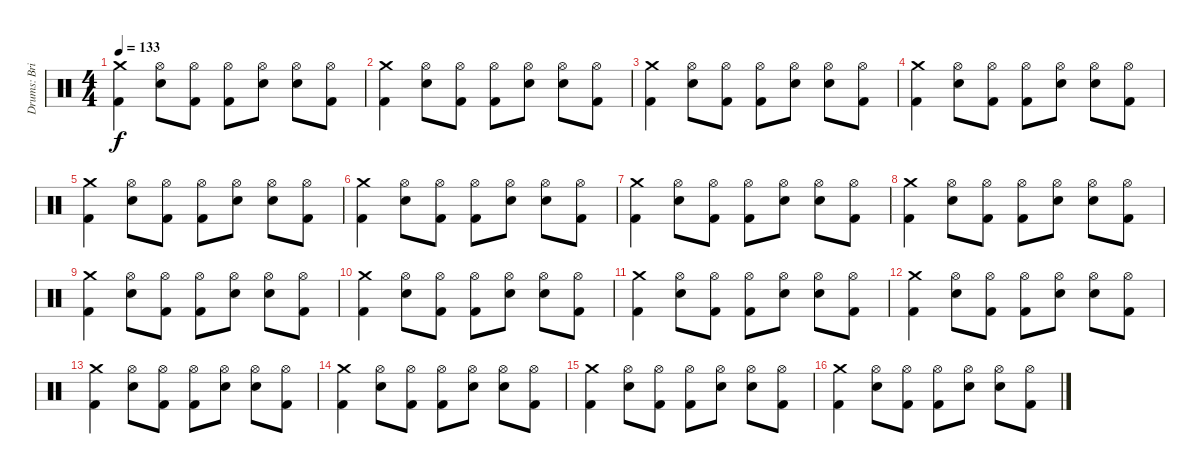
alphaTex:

\track ("Drums: Brian Mantila" "Drums: Bri") {instrument percussion}
\staff {score}
\articulation defaults
\ts (4 4)
\tempo 133
\clef neutral
\ks c
("Crash medium (hit)" "Kick (hit) 2").4{dy f} ("Electric Snare (hit)" "Hi-Hat (open)").8 ("Kick (hit) 2" "Hi-Hat (open)").8 ("Kick (hit) 2" "Hi-Hat (open)").8 ("Electric Snare (hit)" "Hi-Hat (open)").8 ("Electric Snare (hit)" "Hi-Hat (open)").8 ("Kick (hit) 2" "Hi-Hat (open)").8 |
("Crash medium (hit)" "Kick (hit) 2").4 ("Electric Snare (hit)" "Hi-Hat (open)").8 ("Kick (hit) 2" "Hi-Hat (open)").8 ("Kick (hit) 2" "Hi-Hat (open)").8 ("Electric Snare (hit)" "Hi-Hat (open)").8 ("Electric Snare (hit)" "Hi-Hat (open)").8 ("Kick (hit) 2" "Hi-Hat (open)").8 |
("Crash medium (hit)" "Kick (hit) 2").4 ("Electric Snare (hit)" "Hi-Hat (open)").8 ("Kick (hit) 2" "Hi-Hat (open)").8 ("Kick (hit) 2" "Hi-Hat (open)").8 ("Electric Snare (hit)" "Hi-Hat (open)").8 ("Electric Snare (hit)" "Hi-Hat (open)").8 ("Kick (hit) 2" "Hi-Hat (open)").8 |
("Crash medium (hit)" "Kick (hit) 2").4 ("Electric Snare (hit)" "Hi-Hat (open)").8 ("Kick (hit) 2" "Hi-Hat (open)").8 ("Kick (hit) 2" "Hi-Hat (open)").8 ("Electric Snare (hit)" "Hi-Hat (open)").8 ("Electric Snare (hit)" "Hi-Hat (open)").8 ("Kick (hit) 2" "Hi-Hat (open)").8 |
("Crash medium (hit)" "Kick (hit) 2").4 ("Electric Snare (hit)" "Hi-Hat (open)").8 ("Kick (hit) 2" "Hi-Hat (open)").8 ("Kick (hit) 2" "Hi-Hat (open)").8 ("Electric Snare (hit)" "Hi-Hat (open)").8 ("Electric Snare (hit)" "Hi-Hat (open)").8 ("Kick (hit) 2" "Hi-Hat (open)").8 |
("Crash medium (hit)" "Kick (hit) 2").4 ("Electric Snare (hit)" "Hi-Hat (open)").8 ("Kick (hit) 2" "Hi-Hat (open)").8 ("Kick (hit) 2" "Hi-Hat (open)").8 ("Electric Snare (hit)" "Hi-Hat (open)").8 ("Electric Snare (hit)" "Hi-Hat (open)").8 ("Kick (hit) 2" "Hi-Hat (open)").8 |
("Crash medium (hit)" "Kick (hit) 2").4 ("Electric Snare (hit)" "Hi-Hat (open)").8 ("Kick (hit) 2" "Hi-Hat (open)").8 ("Kick (hit) 2" "Hi-Hat (open)").8 ("Electric Snare (hit)" "Hi-Hat (open)").8 ("Electric Snare (hit)" "Hi-Hat (open)").8 ("Kick (hit) 2" "Hi-Hat (open)").8 |
("Crash medium (hit)" "Kick (hit) 2").4 ("Electric Snare (hit)" "Hi-Hat (open)").8 ("Kick (hit) 2" "Hi-Hat (open)").8 ("Kick (hit) 2" "Hi-Hat (open)").8 ("Electric Snare (hit)" "Hi-Hat (open)").8 ("Electric Snare (hit)" "Hi-Hat (open)").8 ("Kick (hit) 2" "Hi-Hat (open)").8 |
("Crash medium (hit)" "Kick (hit) 2").4 ("Electric Snare (hit)" "Hi-Hat (open)").8 ("Kick (hit) 2" "Hi-Hat (open)").8 ("Kick (hit) 2" "Hi-Hat (open)").8 ("Electric Snare (hit)" "Hi-Hat (open)").8 ("Electric Snare (hit)" "Hi-Hat (open)").8 ("Kick (hit) 2" "Hi-Hat (open)").8 |
("Crash medium (hit)" "Kick (hit) 2").4 ("Electric Snare (hit)" "Hi-Hat (open)").8 ("Kick (hit) 2" "Hi-Hat (open)").8 ("Kick (hit) 2" "Hi-Hat (open)").8 ("Electric Snare (hit)" "Hi-Hat (open)").8 ("Electric Snare (hit)" "Hi-Hat (open)").8 ("Kick (hit) 2" "Hi-Hat (open)").8 |
("Crash medium (hit)" "Kick (hit) 2").4 ("Electric Snare (hit)" "Hi-Hat (open)").8 ("Kick (hit) 2" "Hi-Hat (open)").8 ("Kick (hit) 2" "Hi-Hat (open)").8 ("Electric Snare (hit)" "Hi-Hat (open)").8 ("Electric Snare (hit)" "Hi-Hat (open)").8 ("Kick (hit) 2" "Hi-Hat (open)").8 |
("Crash medium (hit)" "Kick (hit) 2").4 ("Electric Snare (hit)" "Hi-Hat (open)").8 ("Kick (hit) 2" "Hi-Hat (open)").8 ("Kick (hit) 2" "Hi-Hat (open)").8 ("Electric Snare (hit)" "Hi-Hat (open)").8 ("Electric Snare (hit)" "Hi-Hat (open)").8 ("Kick (hit) 2" "Hi-Hat (open)").8 |
("Crash medium (hit)" "Kick (hit) 2").4 ("Electric Snare (hit)" "Hi-Hat (open)").8 ("Kick (hit) 2" "Hi-Hat (open)").8 ("Kick (hit) 2" "Hi-Hat (open)").8 ("Electric Snare (hit)" "Hi-Hat (open)").8 ("Electric Snare (hit)" "Hi-Hat (open)").8 ("Kick (hit) 2" "Hi-Hat (open)").8 |
("Crash medium (hit)" "Kick (hit) 2").4 ("Electric Snare (hit)" "Hi-Hat (open)").8 ("Kick (hit) 2" "Hi-Hat (open)").8 ("Kick (hit) 2" "Hi-Hat (open)").8 ("Electric Snare (hit)" "Hi-Hat (open)").8 ("Electric Snare (hit)" "Hi-Hat (open)").8 ("Kick (hit) 2" "Hi-Hat (open)").8 |
("Crash medium (hit)" "Kick (hit) 2").4 ("Electric Snare (hit)" "Hi-Hat (open)").8 ("Kick (hit) 2" "Hi-Hat (open)").8 ("Kick (hit) 2" "Hi-Hat (open)").8 ("Electric Snare (hit)" "Hi-Hat (open)").8 ("Electric Snare (hit)" "Hi-Hat (open)").8 ("Kick (hit) 2" "Hi-Hat (open)").8 |
("Crash medium (hit)" "Kick (hit) 2").4 ("Electric Snare (hit)" "Hi-Hat (open)").8 ("Kick (hit) 2" "Hi-Hat (open)").8 ("Kick (hit) 2" "Hi-Hat (open)").8 ("Electric Snare (hit)" "Hi-Hat (open)").8 ("Electric Snare (hit)" "Hi-Hat (open)").8 ("Kick (hit) 2" "Hi-Hat (open)").8
